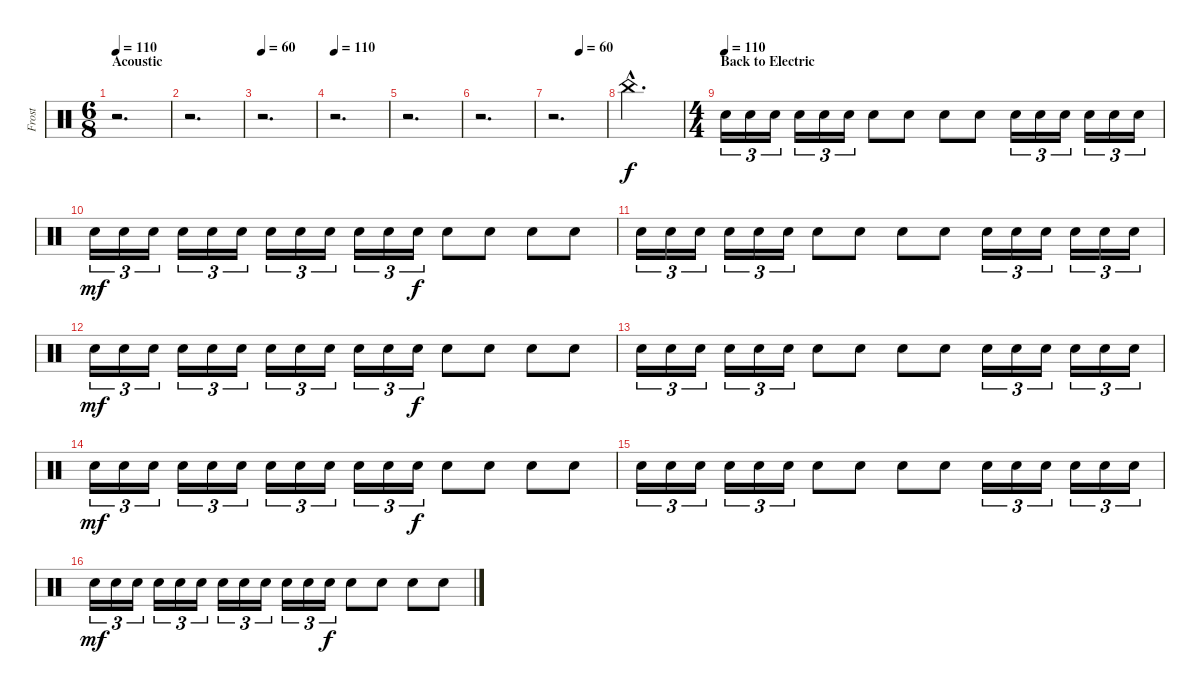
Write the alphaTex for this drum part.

\track ("Frost" "Frost") {instrument percussion}
\staff {score}
\articulation defaults
\ts (6 8)
\section ("" "Acoustic")
\tempo 110
\clef neutral
\ks c
r.2{d dy f} |
r.2{d} |
\tempo 60
r.2{d} |
\tempo 110
r.2{d} |
r.2{d} |
r.2{d} |
\tempo (60 0.5)
r.2{d} |
"China (hit)"{hac}.2{d} |
\ts (4 4)
\section ("" "Back to Electric")
\tempo (110)
"Snare (hit) 2".16{tu (3 2) volume 9} "Snare (hit) 2".16{tu (3 2)} "Snare (hit) 2".16{tu (3 2)} "Snare (hit) 2".16{tu (3 2)} "Snare (hit) 2".16{tu (3 2)} "Snare (hit) 2".16{tu (3 2)} "Snare (hit) 2".8 "Snare (hit) 2".8 "Snare (hit) 2".8 "Snare (hit) 2".8 "Snare (hit) 2".16{tu (3 2)} "Snare (hit) 2".16{tu (3 2)} "Snare (hit) 2".16{tu (3 2)} "Snare (hit) 2".16{tu (3 2)} "Snare (hit) 2".16{tu (3 2)} "Snare (hit) 2".16{tu (3 2)} |
"Snare (hit) 2".16{tu (3 2) dy mf} "Snare (hit) 2".16{tu (3 2)} "Snare (hit) 2".16{tu (3 2)} "Snare (hit) 2".16{tu (3 2)} "Snare (hit) 2".16{tu (3 2)} "Snare (hit) 2".16{tu (3 2)} "Snare (hit) 2".16{tu (3 2)} "Snare (hit) 2".16{tu (3 2)} "Snare (hit) 2".16{tu (3 2)} "Snare (hit) 2".16{tu (3 2)} "Snare (hit) 2".16{tu (3 2)} "Snare (hit) 2".16{tu (3 2) dy f} "Snare (hit) 2".8 "Snare (hit) 2".8 "Snare (hit) 2".8 "Snare (hit) 2".8 |
"Snare (hit) 2".16{tu (3 2)} "Snare (hit) 2".16{tu (3 2)} "Snare (hit) 2".16{tu (3 2)} "Snare (hit) 2".16{tu (3 2)} "Snare (hit) 2".16{tu (3 2)} "Snare (hit) 2".16{tu (3 2)} "Snare (hit) 2".8 "Snare (hit) 2".8 "Snare (hit) 2".8 "Snare (hit) 2".8 "Snare (hit) 2".16{tu (3 2)} "Snare (hit) 2".16{tu (3 2)} "Snare (hit) 2".16{tu (3 2)} "Snare (hit) 2".16{tu (3 2)} "Snare (hit) 2".16{tu (3 2)} "Snare (hit) 2".16{tu (3 2)} |
"Snare (hit) 2".16{tu (3 2) dy mf} "Snare (hit) 2".16{tu (3 2)} "Snare (hit) 2".16{tu (3 2)} "Snare (hit) 2".16{tu (3 2)} "Snare (hit) 2".16{tu (3 2)} "Snare (hit) 2".16{tu (3 2)} "Snare (hit) 2".16{tu (3 2)} "Snare (hit) 2".16{tu (3 2)} "Snare (hit) 2".16{tu (3 2)} "Snare (hit) 2".16{tu (3 2)} "Snare (hit) 2".16{tu (3 2)} "Snare (hit) 2".16{tu (3 2) dy f} "Snare (hit) 2".8 "Snare (hit) 2".8 "Snare (hit) 2".8 "Snare (hit) 2".8 |
"Snare (hit) 2".16{tu (3 2)} "Snare (hit) 2".16{tu (3 2)} "Snare (hit) 2".16{tu (3 2)} "Snare (hit) 2".16{tu (3 2)} "Snare (hit) 2".16{tu (3 2)} "Snare (hit) 2".16{tu (3 2)} "Snare (hit) 2".8 "Snare (hit) 2".8 "Snare (hit) 2".8 "Snare (hit) 2".8 "Snare (hit) 2".16{tu (3 2)} "Snare (hit) 2".16{tu (3 2)} "Snare (hit) 2".16{tu (3 2)} "Snare (hit) 2".16{tu (3 2)} "Snare (hit) 2".16{tu (3 2)} "Snare (hit) 2".16{tu (3 2)} |
"Snare (hit) 2".16{tu (3 2) dy mf} "Snare (hit) 2".16{tu (3 2)} "Snare (hit) 2".16{tu (3 2)} "Snare (hit) 2".16{tu (3 2)} "Snare (hit) 2".16{tu (3 2)} "Snare (hit) 2".16{tu (3 2)} "Snare (hit) 2".16{tu (3 2)} "Snare (hit) 2".16{tu (3 2)} "Snare (hit) 2".16{tu (3 2)} "Snare (hit) 2".16{tu (3 2)} "Snare (hit) 2".16{tu (3 2)} "Snare (hit) 2".16{tu (3 2) dy f} "Snare (hit) 2".8 "Snare (hit) 2".8 "Snare (hit) 2".8 "Snare (hit) 2".8 |
"Snare (hit) 2".16{tu (3 2)} "Snare (hit) 2".16{tu (3 2)} "Snare (hit) 2".16{tu (3 2)} "Snare (hit) 2".16{tu (3 2)} "Snare (hit) 2".16{tu (3 2)} "Snare (hit) 2".16{tu (3 2)} "Snare (hit) 2".8 "Snare (hit) 2".8 "Snare (hit) 2".8 "Snare (hit) 2".8 "Snare (hit) 2".16{tu (3 2)} "Snare (hit) 2".16{tu (3 2)} "Snare (hit) 2".16{tu (3 2)} "Snare (hit) 2".16{tu (3 2)} "Snare (hit) 2".16{tu (3 2)} "Snare (hit) 2".16{tu (3 2)} |
"Snare (hit) 2".16{tu (3 2) dy mf} "Snare (hit) 2".16{tu (3 2)} "Snare (hit) 2".16{tu (3 2)} "Snare (hit) 2".16{tu (3 2)} "Snare (hit) 2".16{tu (3 2)} "Snare (hit) 2".16{tu (3 2)} "Snare (hit) 2".16{tu (3 2)} "Snare (hit) 2".16{tu (3 2)} "Snare (hit) 2".16{tu (3 2)} "Snare (hit) 2".16{tu (3 2)} "Snare (hit) 2".16{tu (3 2)} "Snare (hit) 2".16{tu (3 2) dy f} "Snare (hit) 2".8 "Snare (hit) 2".8 "Snare (hit) 2".8 "Snare (hit) 2".8
